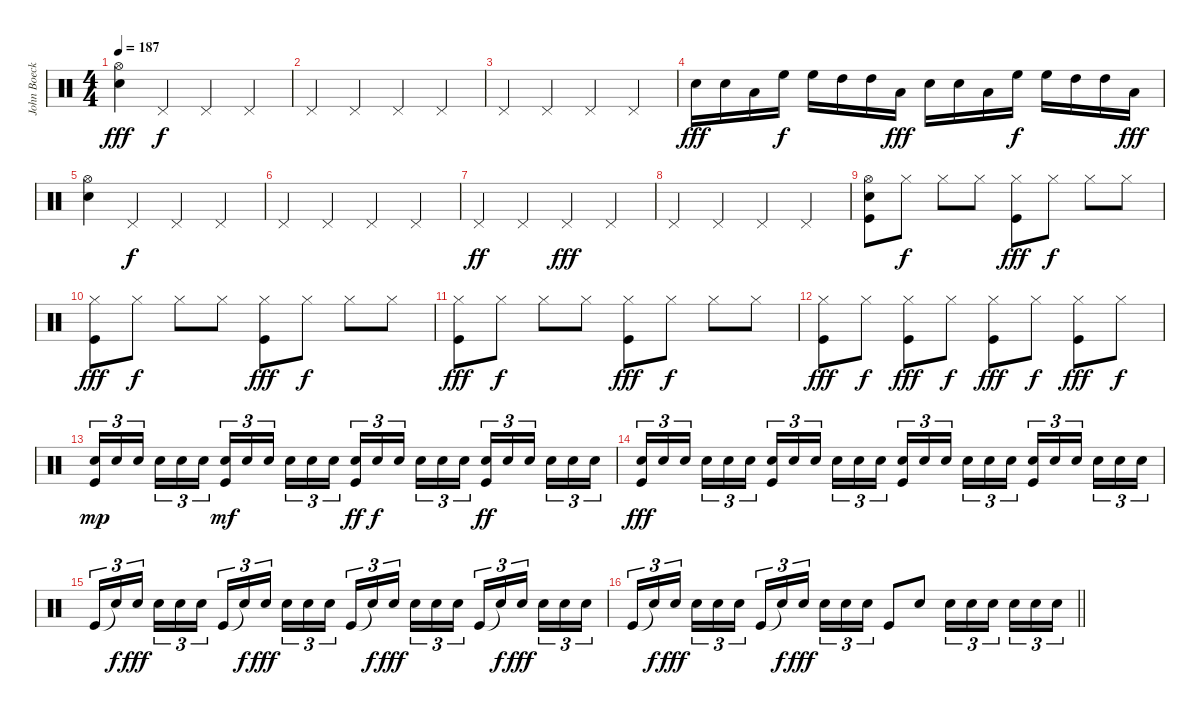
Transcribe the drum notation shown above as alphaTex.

\track ("John Boecklin - Drums" "John Boeck") {instrument percussion}
\staff {score}
\articulation defaults
\ts (4 4)
\tempo 187
\clef neutral
\ks c
("Snare (hit) 2" "Hi-Hat (open)").4{dy fff} "Pedal Hi-Hat (hit)".4{dy f} "Pedal Hi-Hat (hit)".4 "Pedal Hi-Hat (hit)".4 |
"Pedal Hi-Hat (hit)".4 "Pedal Hi-Hat (hit)".4 "Pedal Hi-Hat (hit)".4 "Pedal Hi-Hat (hit)".4 |
"Pedal Hi-Hat (hit)".4 "Pedal Hi-Hat (hit)".4 "Pedal Hi-Hat (hit)".4 "Pedal Hi-Hat (hit)".4 |
"Snare (hit) 2".16{dy fff} "Snare (hit) 2".16 "Low Tom (hit)".16 "High Floor Tom (hit)".16{dy f} "High Floor Tom (hit)".16 "High Tom (hit)".16 "High Tom (hit)".16 "Low Tom (hit)".16{dy fff} "Snare (hit) 2".16 "Snare (hit) 2".16 "Low Tom (hit)".16 "High Floor Tom (hit)".16{dy f} "High Floor Tom (hit)".16 "High Tom (hit)".16 "High Tom (hit)".16 "Low Tom (hit)".16{dy fff} |
("Snare (hit) 2" "Hi-Hat (open)").4 "Pedal Hi-Hat (hit)".4{dy f} "Pedal Hi-Hat (hit)".4 "Pedal Hi-Hat (hit)".4 |
"Pedal Hi-Hat (hit)".4 "Pedal Hi-Hat (hit)".4 "Pedal Hi-Hat (hit)".4 "Pedal Hi-Hat (hit)".4 |
"Pedal Hi-Hat (hit)".4{dy ff} "Pedal Hi-Hat (hit)".4 "Pedal Hi-Hat (hit)".4{dy fff} "Pedal Hi-Hat (hit)".4 |
"Pedal Hi-Hat (hit)".4 "Pedal Hi-Hat (hit)".4 "Pedal Hi-Hat (hit)".4 "Pedal Hi-Hat (hit)".4 |
("Snare (hit) 2" "Hi-Hat (open)" "Kick (hit)").8 "Hi-Hat (closed)".8{dy f} "Hi-Hat (closed)".8 "Hi-Hat (closed)".8 ("Hi-Hat (closed)" "Kick (hit)").8{dy fff} "Hi-Hat (closed)".8{dy f} "Hi-Hat (closed)".8 "Hi-Hat (closed)".8 |
("Hi-Hat (closed)" "Kick (hit)").8{dy fff} "Hi-Hat (closed)".8{dy f} "Hi-Hat (closed)".8 "Hi-Hat (closed)".8 ("Hi-Hat (closed)" "Kick (hit)").8{dy fff} "Hi-Hat (closed)".8{dy f} "Hi-Hat (closed)".8 "Hi-Hat (closed)".8 |
("Hi-Hat (closed)" "Kick (hit)").8{dy fff} "Hi-Hat (closed)".8{dy f} "Hi-Hat (closed)".8 "Hi-Hat (closed)".8 ("Hi-Hat (closed)" "Kick (hit)").8{dy fff} "Hi-Hat (closed)".8{dy f} "Hi-Hat (closed)".8 "Hi-Hat (closed)".8 |
("Hi-Hat (closed)" "Kick (hit)").8{dy fff} "Hi-Hat (closed)".8{dy f} ("Hi-Hat (closed)" "Kick (hit)").8{dy fff} "Hi-Hat (closed)".8{dy f} ("Hi-Hat (closed)" "Kick (hit)").8{dy fff} "Hi-Hat (closed)".8{dy f} ("Hi-Hat (closed)" "Kick (hit)").8{dy fff} "Hi-Hat (closed)".8{dy f} |
("Snare (hit) 2" "Kick (hit)").16{tu (3 2) dy mp} "Snare (hit) 2".16{tu (3 2)} "Snare (hit) 2".16{tu (3 2)} "Snare (hit) 2".16{tu (3 2)} "Snare (hit) 2".16{tu (3 2)} "Snare (hit) 2".16{tu (3 2)} ("Snare (hit) 2" "Kick (hit)").16{tu (3 2) dy mf} "Snare (hit) 2".16{tu (3 2)} "Snare (hit) 2".16{tu (3 2)} "Snare (hit) 2".16{tu (3 2)} "Snare (hit) 2".16{tu (3 2)} "Snare (hit) 2".16{tu (3 2)} ("Snare (hit) 2" "Kick (hit)").16{tu (3 2) dy ff} "Snare (hit) 2".16{tu (3 2) dy f} "Snare (hit) 2".16{tu (3 2)} "Snare (hit) 2".16{tu (3 2)} "Snare (hit) 2".16{tu (3 2)} "Snare (hit) 2".16{tu (3 2)} ("Snare (hit) 2" "Kick (hit)").16{tu (3 2) dy ff} "Snare (hit) 2".16{tu (3 2)} "Snare (hit) 2".16{tu (3 2)} "Snare (hit) 2".16{tu (3 2)} "Snare (hit) 2".16{tu (3 2)} "Snare (hit) 2".16{tu (3 2)} |
("Snare (hit) 2" "Kick (hit)").16{tu (3 2) dy fff} "Snare (hit) 2".16{tu (3 2)} "Snare (hit) 2".16{tu (3 2)} "Snare (hit) 2".16{tu (3 2)} "Snare (hit) 2".16{tu (3 2)} "Snare (hit) 2".16{tu (3 2)} ("Snare (hit) 2" "Kick (hit)").16{tu (3 2)} "Snare (hit) 2".16{tu (3 2)} "Snare (hit) 2".16{tu (3 2)} "Snare (hit) 2".16{tu (3 2)} "Snare (hit) 2".16{tu (3 2)} "Snare (hit) 2".16{tu (3 2)} ("Snare (hit) 2" "Kick (hit)").16{tu (3 2)} "Snare (hit) 2".16{tu (3 2)} "Snare (hit) 2".16{tu (3 2)} "Snare (hit) 2".16{tu (3 2)} "Snare (hit) 2".16{tu (3 2)} "Snare (hit) 2".16{tu (3 2)} ("Snare (hit) 2" "Kick (hit)").16{tu (3 2)} "Snare (hit) 2".16{tu (3 2)} "Snare (hit) 2".16{tu (3 2)} "Snare (hit) 2".16{tu (3 2)} "Snare (hit) 2".16{tu (3 2)} "Snare (hit) 2".16{tu (3 2)} |
"Kick (hit)".16{tu (3 2)} "Snare (hit)"{t}.16{tu (3 2) dy f} "Snare (hit) 2".16{tu (3 2) dy fff} "Snare (hit) 2".16{tu (3 2)} "Snare (hit) 2".16{tu (3 2)} "Snare (hit) 2".16{tu (3 2)} "Kick (hit)".16{tu (3 2)} "Snare (hit)"{t}.16{tu (3 2) dy f} "Snare (hit) 2".16{tu (3 2) dy fff} "Snare (hit) 2".16{tu (3 2)} "Snare (hit) 2".16{tu (3 2)} "Snare (hit) 2".16{tu (3 2)} "Kick (hit)".16{tu (3 2)} "Snare (hit)"{t}.16{tu (3 2) dy f} "Snare (hit) 2".16{tu (3 2) dy fff} "Snare (hit) 2".16{tu (3 2)} "Snare (hit) 2".16{tu (3 2)} "Snare (hit) 2".16{tu (3 2)} "Kick (hit)".16{tu (3 2)} "Snare (hit)"{t}.16{tu (3 2) dy f} "Snare (hit) 2".16{tu (3 2) dy fff} "Snare (hit) 2".16{tu (3 2)} "Snare (hit) 2".16{tu (3 2)} "Snare (hit) 2".16{tu (3 2)} |
\barLineRight lightlight "Kick (hit)".16{tu (3 2)} "Snare (hit)"{t}.16{tu (3 2) dy f} "Snare (hit) 2".16{tu (3 2) dy fff} "Snare (hit) 2".16{tu (3 2)} "Snare (hit) 2".16{tu (3 2)} "Snare (hit) 2".16{tu (3 2)} "Kick (hit)".16{tu (3 2)} "Snare (hit)"{t}.16{tu (3 2) dy f} "Snare (hit) 2".16{tu (3 2) dy fff} "Snare (hit) 2".16{tu (3 2)} "Snare (hit) 2".16{tu (3 2)} "Snare (hit) 2".16{tu (3 2)} "Kick (hit)".8 "Snare (hit) 2".8 "Snare (hit) 2".16{tu (3 2)} "Snare (hit) 2".16{tu (3 2)} "Snare (hit) 2".16{tu (3 2)} "Snare (hit) 2".16{tu (3 2)} "Snare (hit) 2".16{tu (3 2)} "Snare (hit) 2".16{tu (3 2)}
